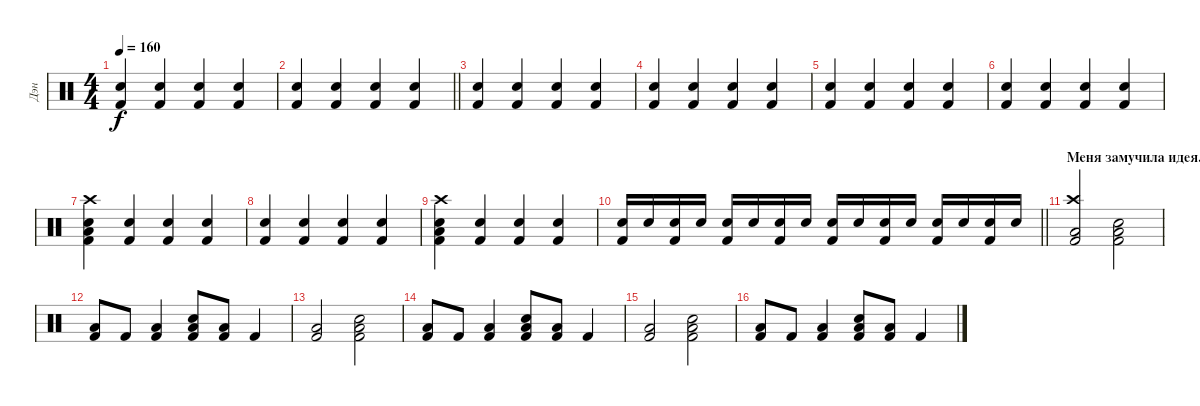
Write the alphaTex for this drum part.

\track ("Дэн" "Дэн") {instrument percussion}
\staff {score}
\articulation defaults
\ts (4 4)
\tempo 160
\clef neutral
\ks c
("Electric Snare (hit)" "Kick (hit) 2").4{dy f} ("Electric Snare (hit)" "Kick (hit) 2").4 ("Electric Snare (hit)" "Kick (hit) 2").4 ("Electric Snare (hit)" "Kick (hit) 2").4 |
\barLineRight lightlight
("Electric Snare (hit)" "Kick (hit) 2").4 ("Electric Snare (hit)" "Kick (hit) 2").4 ("Electric Snare (hit)" "Kick (hit) 2").4 ("Electric Snare (hit)" "Kick (hit) 2").4 |
("Electric Snare (hit)" "Kick (hit) 2").4 ("Electric Snare (hit)" "Kick (hit) 2").4 ("Electric Snare (hit)" "Kick (hit) 2").4 ("Electric Snare (hit)" "Kick (hit) 2").4 |
("Electric Snare (hit)" "Kick (hit) 2").4 ("Electric Snare (hit)" "Kick (hit) 2").4 ("Electric Snare (hit)" "Kick (hit) 2").4 ("Electric Snare (hit)" "Kick (hit) 2").4 |
("Electric Snare (hit)" "Kick (hit) 2").4 ("Electric Snare (hit)" "Kick (hit) 2").4 ("Electric Snare (hit)" "Kick (hit) 2").4 ("Electric Snare (hit)" "Kick (hit) 2").4 |
("Electric Snare (hit)" "Kick (hit) 2").4 ("Electric Snare (hit)" "Kick (hit) 2").4 ("Electric Snare (hit)" "Kick (hit) 2").4 ("Electric Snare (hit)" "Kick (hit) 2").4 |
("Crash high (hit)" "Electric Snare (hit)" "Low Tom (hit)" "Kick (hit) 2").4 ("Electric Snare (hit)" "Kick (hit) 2").4 ("Electric Snare (hit)" "Kick (hit) 2").4 ("Electric Snare (hit)" "Kick (hit) 2").4 |
("Electric Snare (hit)" "Kick (hit) 2").4 ("Electric Snare (hit)" "Kick (hit) 2").4 ("Electric Snare (hit)" "Kick (hit) 2").4 ("Electric Snare (hit)" "Kick (hit) 2").4 |
("Crash high (hit)" "Electric Snare (hit)" "Low Tom (hit)" "Kick (hit) 2").4 ("Electric Snare (hit)" "Kick (hit) 2").4 ("Electric Snare (hit)" "Kick (hit) 2").4 ("Electric Snare (hit)" "Kick (hit) 2").4 |
\barLineRight lightlight
("Electric Snare (hit)" "Kick (hit) 2").16 "Electric Snare (hit)".16 ("Electric Snare (hit)" "Kick (hit) 2").16 "Electric Snare (hit)".16 ("Electric Snare (hit)" "Kick (hit) 2").16 "Electric Snare (hit)".16 ("Electric Snare (hit)" "Kick (hit) 2").16 "Electric Snare (hit)".16 ("Electric Snare (hit)" "Kick (hit) 2").16 "Electric Snare (hit)".16 ("Electric Snare (hit)" "Kick (hit) 2").16 "Electric Snare (hit)".16 ("Electric Snare (hit)" "Kick (hit) 2").16 "Electric Snare (hit)".16 ("Electric Snare (hit)" "Kick (hit) 2").16 "Electric Snare (hit)".16 |
\section ("" "Меня замучила идея...")
("Crash high (hit)" "Low Tom (hit)" "Kick (hit) 2").2{volume 13} ("Electric Snare (hit)" "Low Tom (hit)" "Kick (hit) 2").2 |
("Low Tom (hit)" "Kick (hit) 2").8 "Kick (hit) 2".8 ("Low Tom (hit)" "Kick (hit) 2").4 ("Electric Snare (hit)" "Low Tom (hit)" "Kick (hit) 2").8 ("Low Tom (hit)" "Kick (hit) 2").8 "Kick (hit) 2".4 |
("Low Tom (hit)" "Kick (hit) 2").2 ("Electric Snare (hit)" "Low Tom (hit)" "Kick (hit) 2").2 |
("Low Tom (hit)" "Kick (hit) 2").8 "Kick (hit) 2".8 ("Low Tom (hit)" "Kick (hit) 2").4 ("Electric Snare (hit)" "Low Tom (hit)" "Kick (hit) 2").8 ("Low Tom (hit)" "Kick (hit) 2").8 "Kick (hit) 2".4 |
("Low Tom (hit)" "Kick (hit) 2").2 ("Electric Snare (hit)" "Low Tom (hit)" "Kick (hit) 2").2 |
("Low Tom (hit)" "Kick (hit) 2").8 "Kick (hit) 2".8 ("Low Tom (hit)" "Kick (hit) 2").4 ("Electric Snare (hit)" "Low Tom (hit)" "Kick (hit) 2").8 ("Low Tom (hit)" "Kick (hit) 2").8 "Kick (hit) 2".4
